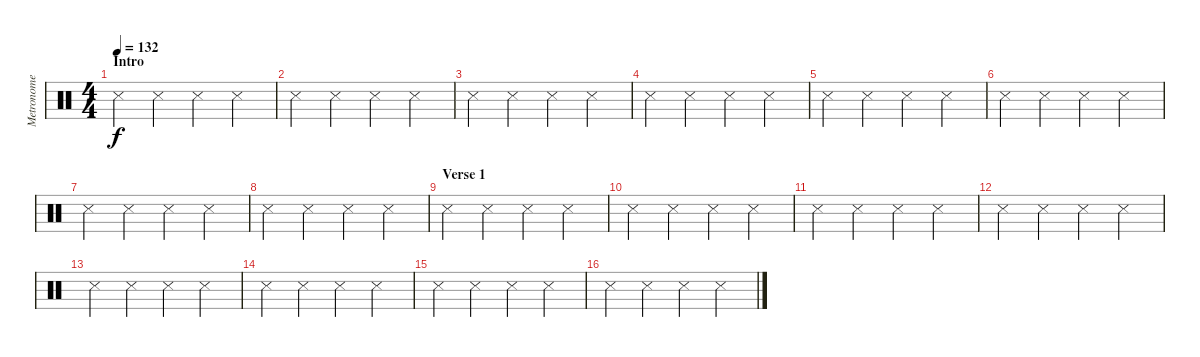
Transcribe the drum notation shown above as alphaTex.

\track ("Metronome" "Metronome") {instrument percussion}
\staff {score}
\articulation defaults
\ts (4 4)
\section ("" "Intro")
\tempo 132
\clef neutral
\ks c "Metronome (hit)".4{dy f} "Metronome (hit)".4 "Metronome (hit)".4 "Metronome (hit)".4
|
"Metronome (hit)".4 "Metronome (hit)".4 "Metronome (hit)".4 "Metronome (hit)".4 |
"Metronome (hit)".4 "Metronome (hit)".4 "Metronome (hit)".4 "Metronome (hit)".4 |
"Metronome (hit)".4 "Metronome (hit)".4 "Metronome (hit)".4 "Metronome (hit)".4 |
"Metronome (hit)".4 "Metronome (hit)".4 "Metronome (hit)".4 "Metronome (hit)".4 |
"Metronome (hit)".4 "Metronome (hit)".4 "Metronome (hit)".4 "Metronome (hit)".4 |
"Metronome (hit)".4 "Metronome (hit)".4 "Metronome (hit)".4 "Metronome (hit)".4 |
"Metronome (hit)".4 "Metronome (hit)".4 "Metronome (hit)".4 "Metronome (hit)".4 |
\section ("" "Verse 1")
"Metronome (hit)".4 "Metronome (hit)".4 "Metronome (hit)".4 "Metronome (hit)".4 |
"Metronome (hit)".4 "Metronome (hit)".4 "Metronome (hit)".4 "Metronome (hit)".4 |
"Metronome (hit)".4 "Metronome (hit)".4 "Metronome (hit)".4 "Metronome (hit)".4 |
"Metronome (hit)".4 "Metronome (hit)".4 "Metronome (hit)".4 "Metronome (hit)".4 |
"Metronome (hit)".4 "Metronome (hit)".4 "Metronome (hit)".4 "Metronome (hit)".4 |
"Metronome (hit)".4 "Metronome (hit)".4 "Metronome (hit)".4 "Metronome (hit)".4 |
"Metronome (hit)".4 "Metronome (hit)".4 "Metronome (hit)".4 "Metronome (hit)".4 |
"Metronome (hit)".4 "Metronome (hit)".4 "Metronome (hit)".4 "Metronome (hit)".4
